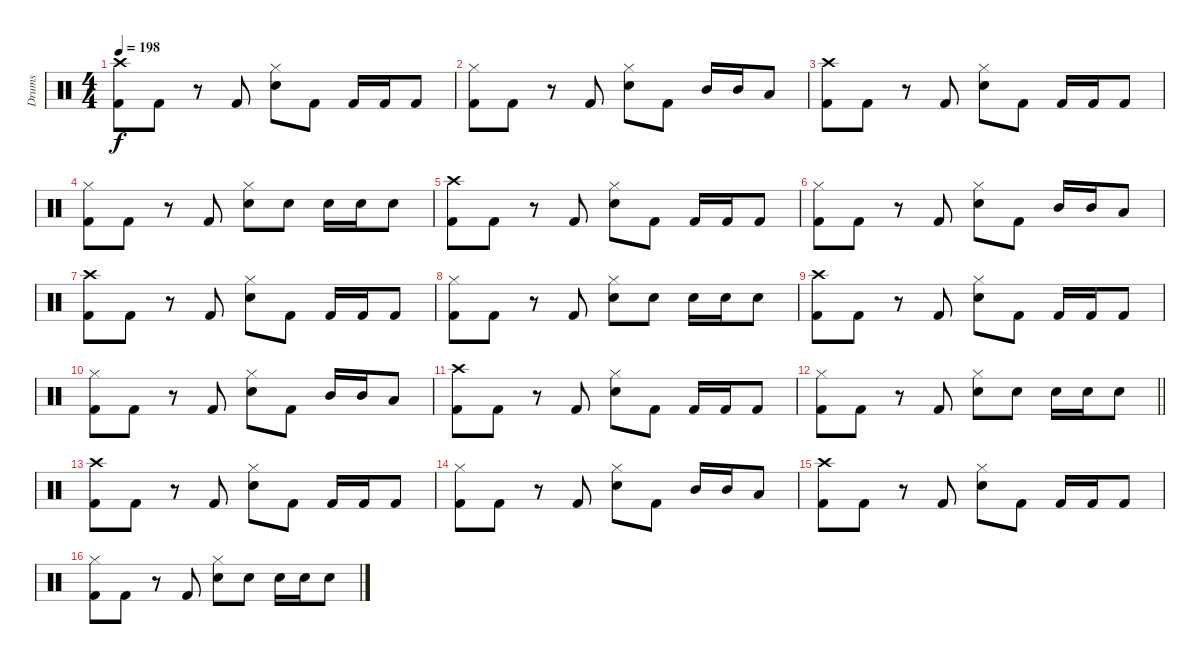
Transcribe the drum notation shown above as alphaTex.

\track ("Drums" "Drums") {instrument percussion}
\staff {score}
\articulation defaults
\ts (4 4)
\tempo 198
\clef neutral
\ks c
("Crash high (hit)" "Kick (hit) 2").8{dy f} "Kick (hit) 2".8 r.8 "Kick (hit) 2".8 ("Hi-Hat (closed)" "Snare (hit) 2").8 "Kick (hit) 2".8 "Kick (hit) 2".16 "Kick (hit) 2".16 "Kick (hit) 2".8 |
("Hi-Hat (closed)" "Kick (hit) 2").8 "Kick (hit) 2".8 r.8 "Kick (hit) 2".8 ("Hi-Hat (closed)" "Snare (hit) 2").8 "Kick (hit) 2".8 "Mid Tom (hit)".16 "Mid Tom (hit)".16 "Low Tom (hit)".8 |
("Crash high (hit)" "Kick (hit) 2").8 "Kick (hit) 2".8 r.8 "Kick (hit) 2".8 ("Hi-Hat (closed)" "Snare (hit) 2").8 "Kick (hit) 2".8 "Kick (hit) 2".16 "Kick (hit) 2".16 "Kick (hit) 2".8 |
("Hi-Hat (closed)" "Kick (hit) 2").8 "Kick (hit) 2".8 r.8 "Kick (hit) 2".8 ("Hi-Hat (closed)" "Snare (hit) 2").8 "Snare (hit) 2".8 "Snare (hit) 2".16 "Snare (hit) 2".16 "Snare (hit) 2".8 |
("Crash high (hit)" "Kick (hit) 2").8 "Kick (hit) 2".8 r.8 "Kick (hit) 2".8 ("Hi-Hat (closed)" "Snare (hit) 2").8 "Kick (hit) 2".8 "Kick (hit) 2".16 "Kick (hit) 2".16 "Kick (hit) 2".8 |
("Hi-Hat (closed)" "Kick (hit) 2").8 "Kick (hit) 2".8 r.8 "Kick (hit) 2".8 ("Hi-Hat (closed)" "Snare (hit) 2").8 "Kick (hit) 2".8 "Mid Tom (hit)".16 "Mid Tom (hit)".16 "Low Tom (hit)".8 |
("Crash high (hit)" "Kick (hit) 2").8 "Kick (hit) 2".8 r.8 "Kick (hit) 2".8 ("Hi-Hat (closed)" "Snare (hit) 2").8 "Kick (hit) 2".8 "Kick (hit) 2".16 "Kick (hit) 2".16 "Kick (hit) 2".8 |
("Hi-Hat (closed)" "Kick (hit) 2").8 "Kick (hit) 2".8 r.8 "Kick (hit) 2".8 ("Hi-Hat (closed)" "Snare (hit) 2").8 "Snare (hit) 2".8 "Snare (hit) 2".16 "Snare (hit) 2".16 "Snare (hit) 2".8 |
("Crash high (hit)" "Kick (hit) 2").8 "Kick (hit) 2".8 r.8 "Kick (hit) 2".8 ("Hi-Hat (closed)" "Snare (hit) 2").8 "Kick (hit) 2".8 "Kick (hit) 2".16 "Kick (hit) 2".16 "Kick (hit) 2".8 |
("Hi-Hat (closed)" "Kick (hit) 2").8 "Kick (hit) 2".8 r.8 "Kick (hit) 2".8 ("Hi-Hat (closed)" "Snare (hit) 2").8 "Kick (hit) 2".8 "Mid Tom (hit)".16 "Mid Tom (hit)".16 "Low Tom (hit)".8 |
("Crash high (hit)" "Kick (hit) 2").8 "Kick (hit) 2".8 r.8 "Kick (hit) 2".8 ("Hi-Hat (closed)" "Snare (hit) 2").8 "Kick (hit) 2".8 "Kick (hit) 2".16 "Kick (hit) 2".16 "Kick (hit) 2".8 |
\barLineRight lightlight
("Hi-Hat (closed)" "Kick (hit) 2").8 "Kick (hit) 2".8 r.8 "Kick (hit) 2".8 ("Hi-Hat (closed)" "Snare (hit) 2").8 "Snare (hit) 2".8 "Snare (hit) 2".16 "Snare (hit) 2".16 "Snare (hit) 2".8 |
("Crash high (hit)" "Kick (hit) 2").8 "Kick (hit) 2".8 r.8 "Kick (hit) 2".8 ("Hi-Hat (closed)" "Snare (hit) 2").8 "Kick (hit) 2".8 "Kick (hit) 2".16 "Kick (hit) 2".16 "Kick (hit) 2".8 |
("Hi-Hat (closed)" "Kick (hit) 2").8 "Kick (hit) 2".8 r.8 "Kick (hit) 2".8 ("Hi-Hat (closed)" "Snare (hit) 2").8 "Kick (hit) 2".8 "Mid Tom (hit)".16 "Mid Tom (hit)".16 "Low Tom (hit)".8 |
("Crash high (hit)" "Kick (hit) 2").8 "Kick (hit) 2".8 r.8 "Kick (hit) 2".8 ("Hi-Hat (closed)" "Snare (hit) 2").8 "Kick (hit) 2".8 "Kick (hit) 2".16 "Kick (hit) 2".16 "Kick (hit) 2".8 |
("Hi-Hat (closed)" "Kick (hit) 2").8 "Kick (hit) 2".8 r.8 "Kick (hit) 2".8 ("Hi-Hat (closed)" "Snare (hit) 2").8 "Snare (hit) 2".8 "Snare (hit) 2".16 "Snare (hit) 2".16 "Snare (hit) 2".8
